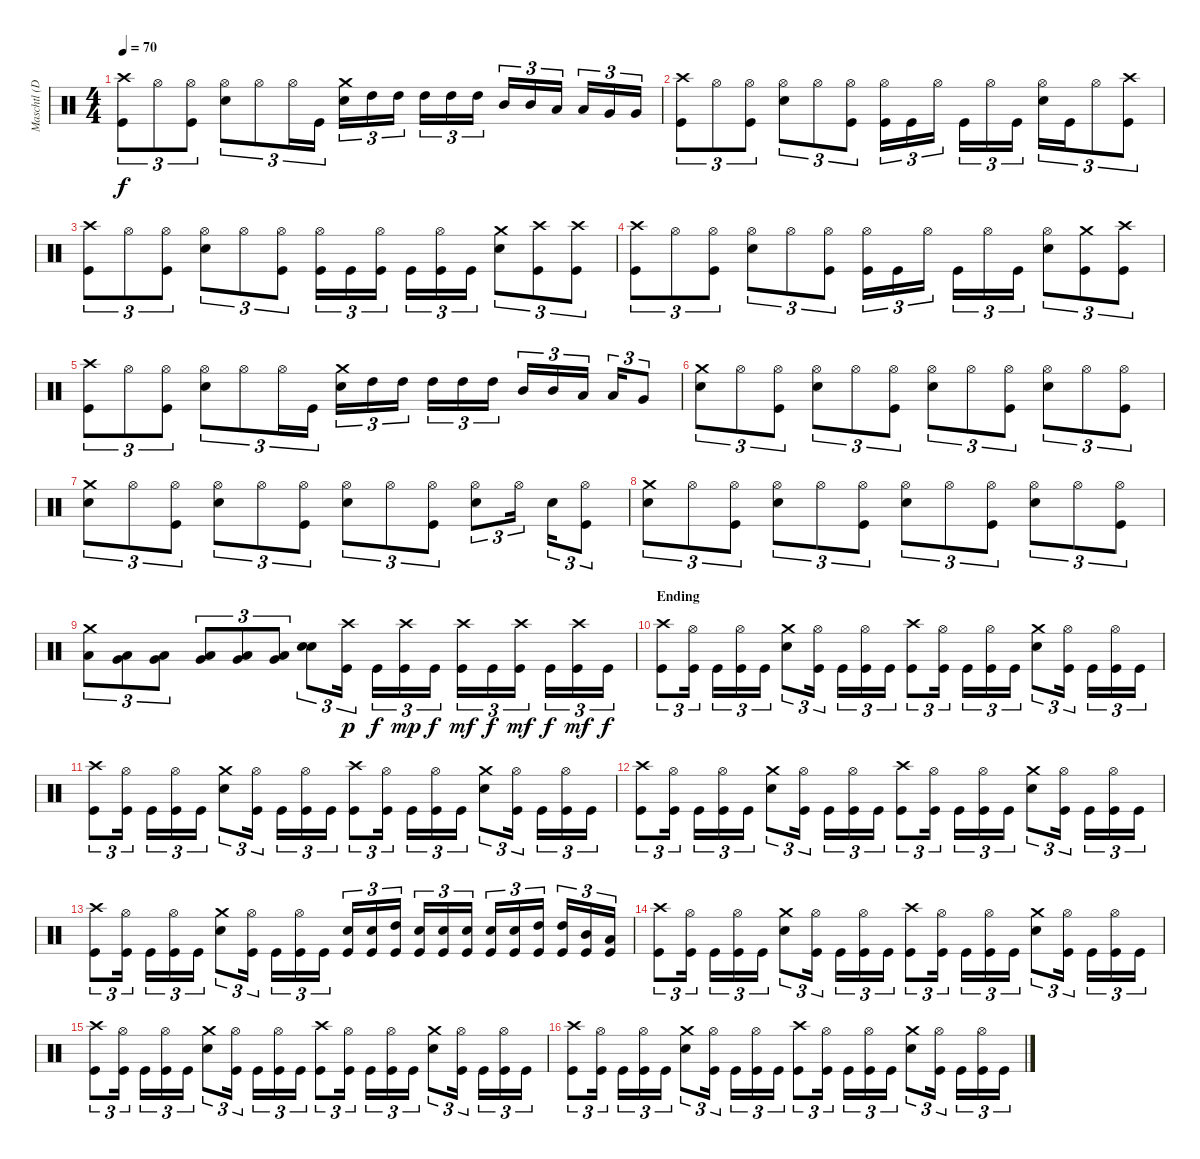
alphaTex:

\track ("Maschtl (Drums)" "Maschtl (D") {instrument percussion}
\staff {score}
\articulation defaults
\ts (4 4)
\tempo 70
\clef neutral
\ks c
("Crash high (hit)" "Kick (hit)").8{tu (3 2) dy f} "Hi-Hat (open)".8{tu (3 2)} ("Hi-Hat (open)" "Kick (hit)").8{tu (3 2)} ("Hi-Hat (open)" "Electric Snare (hit)").8{tu (3 2)} "Hi-Hat (open)".8{tu (3 2)} "Hi-Hat (open)".16{tu (3 2)} "Kick (hit)".16{tu (3 2)} ("Crash medium (hit)" "Electric Snare (hit)").16{tu (3 2)} "High Tom (hit)".16{tu (3 2)} "High Tom (hit)".16{tu (3 2)} "High Tom (hit)".16{tu (3 2)} "High Tom (hit)".16{tu (3 2)} "High Tom (hit)".16{tu (3 2)} "Mid Tom (hit)".16{tu (3 2)} "Mid Tom (hit)".16{tu (3 2)} "Low Tom (hit)".16{tu (3 2)} "Low Tom (hit)".16{tu (3 2)} "Very Low Tom (hit)".16{tu (3 2)} "Very Low Tom (hit)".16{tu (3 2)} |
("Crash high (hit)" "Kick (hit)").8{tu (3 2)} "Hi-Hat (open)".8{tu (3 2)} ("Hi-Hat (open)" "Kick (hit)").8{tu (3 2)} ("Hi-Hat (open)" "Electric Snare (hit)").8{tu (3 2)} "Hi-Hat (open)".8{tu (3 2)} ("Hi-Hat (open)" "Kick (hit)").8{tu (3 2)} ("Hi-Hat (open)" "Kick (hit)").16{tu (3 2)} "Kick (hit)".16{tu (3 2)} "Hi-Hat (open)".16{tu (3 2)} "Kick (hit)".16{tu (3 2)} "Hi-Hat (open)".16{tu (3 2)} "Kick (hit)".16{tu (3 2)} ("Hi-Hat (open)" "Electric Snare (hit)").16{tu (3 2)} "Kick (hit)".16{tu (3 2)} "Hi-Hat (open)".8{tu (3 2)} ("Crash high (hit)" "Kick (hit)").8{tu (3 2)} |
("Crash high (hit)" "Kick (hit)").8{tu (3 2)} "Hi-Hat (open)".8{tu (3 2)} ("Hi-Hat (open)" "Kick (hit)").8{tu (3 2)} ("Hi-Hat (open)" "Electric Snare (hit)").8{tu (3 2)} "Hi-Hat (open)".8{tu (3 2)} ("Hi-Hat (open)" "Kick (hit)").8{tu (3 2)} ("Hi-Hat (open)" "Kick (hit)").16{tu (3 2)} "Kick (hit)".16{tu (3 2)} ("Hi-Hat (open)" "Kick (hit)").16{tu (3 2)} "Kick (hit)".16{tu (3 2)} ("Hi-Hat (open)" "Kick (hit)").16{tu (3 2)} "Kick (hit)".16{tu (3 2)} ("Crash medium (hit)" "Electric Snare (hit)").8{tu (3 2)} ("Crash high (hit)" "Kick (hit)").8{tu (3 2)} ("Crash high (hit)" "Kick (hit)").8{tu (3 2)} |
("Crash high (hit)" "Kick (hit)").8{tu (3 2)} "Hi-Hat (open)".8{tu (3 2)} ("Hi-Hat (open)" "Kick (hit)").8{tu (3 2)} ("Hi-Hat (open)" "Electric Snare (hit)").8{tu (3 2)} "Hi-Hat (open)".8{tu (3 2)} ("Hi-Hat (open)" "Kick (hit)").8{tu (3 2)} ("Hi-Hat (open)" "Kick (hit)").16{tu (3 2)} "Kick (hit)".16{tu (3 2)} "Hi-Hat (open)".16{tu (3 2)} "Kick (hit)".16{tu (3 2)} "Hi-Hat (open)".16{tu (3 2)} "Kick (hit)".16{tu (3 2)} ("Hi-Hat (open)" "Electric Snare (hit)").8{tu (3 2)} ("Crash medium (hit)" "Kick (hit)").8{tu (3 2)} ("Crash high (hit)" "Kick (hit)").8{tu (3 2)} |
("Crash high (hit)" "Kick (hit)").8{tu (3 2)} "Hi-Hat (open)".8{tu (3 2)} ("Hi-Hat (open)" "Kick (hit)").8{tu (3 2)} ("Hi-Hat (open)" "Electric Snare (hit)").8{tu (3 2)} "Hi-Hat (open)".8{tu (3 2)} "Hi-Hat (open)".16{tu (3 2)} "Kick (hit)".16{tu (3 2)} ("Crash medium (hit)" "Electric Snare (hit)").16{tu (3 2)} "High Tom (hit)".16{tu (3 2)} "High Tom (hit)".16{tu (3 2)} "High Tom (hit)".16{tu (3 2)} "High Tom (hit)".16{tu (3 2)} "High Tom (hit)".16{tu (3 2)} "Mid Tom (hit)".16{tu (3 2)} "Mid Tom (hit)".16{tu (3 2)} "Low Tom (hit)".16{tu (3 2)} "Low Tom (hit)".16{tu (3 2)} "Very Low Tom (hit)".8{tu (3 2)} |
("Crash medium (hit)" "Electric Snare (hit)").8{tu (3 2)} "Hi-Hat (open)".8{tu (3 2)} ("Hi-Hat (open)" "Kick (hit)").8{tu (3 2)} ("Hi-Hat (open)" "Electric Snare (hit)").8{tu (3 2)} "Hi-Hat (open)".8{tu (3 2)} ("Hi-Hat (open)" "Kick (hit)").8{tu (3 2)} ("Hi-Hat (open)" "Electric Snare (hit)").8{tu (3 2)} "Hi-Hat (open)".8{tu (3 2)} ("Hi-Hat (open)" "Kick (hit)").8{tu (3 2)} ("Hi-Hat (open)" "Electric Snare (hit)").8{tu (3 2)} "Hi-Hat (open)".8{tu (3 2)} ("Hi-Hat (open)" "Kick (hit)").8{tu (3 2)} |
("Crash medium (hit)" "Electric Snare (hit)").8{tu (3 2)} "Hi-Hat (open)".8{tu (3 2)} ("Hi-Hat (open)" "Kick (hit)").8{tu (3 2)} ("Hi-Hat (open)" "Electric Snare (hit)").8{tu (3 2)} "Hi-Hat (open)".8{tu (3 2)} ("Hi-Hat (open)" "Kick (hit)").8{tu (3 2)} ("Hi-Hat (open)" "Electric Snare (hit)").8{tu (3 2)} "Hi-Hat (open)".8{tu (3 2)} ("Hi-Hat (open)" "Kick (hit)").8{tu (3 2)} ("Hi-Hat (open)" "Electric Snare (hit)").8{tu (3 2)} "Hi-Hat (open)".16{tu (3 2)} "Electric Snare (hit)".16{tu (3 2)} ("Hi-Hat (open)" "Kick (hit)").8{tu (3 2)} |
("Crash medium (hit)" "Electric Snare (hit)").8{tu (3 2)} "Hi-Hat (open)".8{tu (3 2)} ("Hi-Hat (open)" "Kick (hit)").8{tu (3 2)} ("Hi-Hat (open)" "Electric Snare (hit)").8{tu (3 2)} "Hi-Hat (open)".8{tu (3 2)} ("Hi-Hat (open)" "Kick (hit)").8{tu (3 2)} ("Hi-Hat (open)" "Electric Snare (hit)").8{tu (3 2)} "Hi-Hat (open)".8{tu (3 2)} ("Hi-Hat (open)" "Kick (hit)").8{tu (3 2)} ("Hi-Hat (open)" "Electric Snare (hit)").8{tu (3 2)} "Hi-Hat (open)".8{tu (3 2)} ("Hi-Hat (open)" "Kick (hit)").8{tu (3 2)} |
("Crash medium (hit)" "Low Tom (hit)").8{tu (3 2)} ("Very Low Tom (hit)" "Low Tom (hit)").8{tu (3 2) bu 60} ("Very Low Tom (hit)" "Low Tom (hit)").8{tu (3 2) bu 60} ("Very Low Tom (hit)" "Low Tom (hit)").8{tu (3 2) bu 60} ("Very Low Tom (hit)" "Low Tom (hit)").8{tu (3 2) bu 60} ("Very Low Tom (hit)" "Low Tom (hit)").8{tu (3 2) bu 60} ("Electric Snare (hit)" "Electric Snare (hit)").8{tu (3 2) bu 60} ("Crash high (hit)" "Kick (hit)").16{tu (3 2) dy p} "Kick (hit)".16{tu (3 2) dy f} ("Crash high (hit)" "Kick (hit)").16{tu (3 2) dy mp} "Kick (hit)".16{tu (3 2) dy f} ("Crash high (hit)" "Kick (hit)").16{tu (3 2) dy mf} "Kick (hit)".16{tu (3 2) dy f} ("Crash high (hit)" "Kick (hit)").16{tu (3 2) dy mf} "Kick (hit)".16{tu (3 2) dy f} ("Crash high (hit)" "Kick (hit)").16{tu (3 2) dy mf} "Kick (hit)".16{tu (3 2) dy f} |
\section ("" "Ending")
("Crash high (hit)" "Kick (hit)").8{tu (3 2)} ("Hi-Hat (open)" "Kick (hit)").16{tu (3 2)} "Kick (hit)".16{tu (3 2)} ("Hi-Hat (open)" "Kick (hit)").16{tu (3 2)} "Kick (hit)".16{tu (3 2)} ("Crash medium (hit)" "Electric Snare (hit)").8{tu (3 2)} ("Hi-Hat (open)" "Kick (hit)").16{tu (3 2)} "Kick (hit)".16{tu (3 2)} ("Hi-Hat (open)" "Kick (hit)").16{tu (3 2)} "Kick (hit)".16{tu (3 2)} ("Crash high (hit)" "Kick (hit)").8{tu (3 2)} ("Hi-Hat (open)" "Kick (hit)").16{tu (3 2)} "Kick (hit)".16{tu (3 2)} ("Hi-Hat (open)" "Kick (hit)").16{tu (3 2)} "Kick (hit)".16{tu (3 2)} ("Crash medium (hit)" "Electric Snare (hit)").8{tu (3 2)} ("Hi-Hat (open)" "Kick (hit)").16{tu (3 2)} "Kick (hit)".16{tu (3 2)} ("Hi-Hat (open)" "Kick (hit)").16{tu (3 2)} "Kick (hit)".16{tu (3 2)} |
("Crash high (hit)" "Kick (hit)").8{tu (3 2)} ("Hi-Hat (open)" "Kick (hit)").16{tu (3 2)} "Kick (hit)".16{tu (3 2)} ("Hi-Hat (open)" "Kick (hit)").16{tu (3 2)} "Kick (hit)".16{tu (3 2)} ("Crash medium (hit)" "Electric Snare (hit)").8{tu (3 2)} ("Hi-Hat (open)" "Kick (hit)").16{tu (3 2)} "Kick (hit)".16{tu (3 2)} ("Hi-Hat (open)" "Kick (hit)").16{tu (3 2)} "Kick (hit)".16{tu (3 2)} ("Crash high (hit)" "Kick (hit)").8{tu (3 2)} ("Hi-Hat (open)" "Kick (hit)").16{tu (3 2)} "Kick (hit)".16{tu (3 2)} ("Hi-Hat (open)" "Kick (hit)").16{tu (3 2)} "Kick (hit)".16{tu (3 2)} ("Crash medium (hit)" "Electric Snare (hit)").8{tu (3 2)} ("Hi-Hat (open)" "Kick (hit)").16{tu (3 2)} "Kick (hit)".16{tu (3 2)} ("Hi-Hat (open)" "Kick (hit)").16{tu (3 2)} "Kick (hit)".16{tu (3 2)} |
("Crash high (hit)" "Kick (hit)").8{tu (3 2)} ("Hi-Hat (open)" "Kick (hit)").16{tu (3 2)} "Kick (hit)".16{tu (3 2)} ("Hi-Hat (open)" "Kick (hit)").16{tu (3 2)} "Kick (hit)".16{tu (3 2)} ("Crash medium (hit)" "Electric Snare (hit)").8{tu (3 2)} ("Hi-Hat (open)" "Kick (hit)").16{tu (3 2)} "Kick (hit)".16{tu (3 2)} ("Hi-Hat (open)" "Kick (hit)").16{tu (3 2)} "Kick (hit)".16{tu (3 2)} ("Crash high (hit)" "Kick (hit)").8{tu (3 2)} ("Hi-Hat (open)" "Kick (hit)").16{tu (3 2)} "Kick (hit)".16{tu (3 2)} ("Hi-Hat (open)" "Kick (hit)").16{tu (3 2)} "Kick (hit)".16{tu (3 2)} ("Crash medium (hit)" "Electric Snare (hit)").8{tu (3 2)} ("Hi-Hat (open)" "Kick (hit)").16{tu (3 2)} "Kick (hit)".16{tu (3 2)} ("Hi-Hat (open)" "Kick (hit)").16{tu (3 2)} "Kick (hit)".16{tu (3 2)} |
("Crash high (hit)" "Kick (hit)").8{tu (3 2)} ("Hi-Hat (open)" "Kick (hit)").16{tu (3 2)} "Kick (hit)".16{tu (3 2)} ("Hi-Hat (open)" "Kick (hit)").16{tu (3 2)} "Kick (hit)".16{tu (3 2)} ("Crash medium (hit)" "Electric Snare (hit)").8{tu (3 2)} ("Hi-Hat (open)" "Kick (hit)").16{tu (3 2)} "Kick (hit)".16{tu (3 2)} ("Hi-Hat (open)" "Kick (hit)").16{tu (3 2)} "Kick (hit)".16{tu (3 2)} ("Electric Snare (hit)" "Kick (hit)").16{tu (3 2)} ("Electric Snare (hit)" "Kick (hit)").16{tu (3 2)} ("High Tom (hit)" "Kick (hit)").16{tu (3 2)} ("Electric Snare (hit)" "Kick (hit)").16{tu (3 2)} ("Electric Snare (hit)" "Kick (hit)").16{tu (3 2)} ("Electric Snare (hit)" "Kick (hit)").16{tu (3 2)} ("Electric Snare (hit)" "Kick (hit)").16{tu (3 2)} ("Electric Snare (hit)" "Kick (hit)").16{tu (3 2)} ("High Tom (hit)" "Kick (hit)").16{tu (3 2)} ("High Tom (hit)" "Kick (hit)").16{tu (3 2)} ("Mid Tom (hit)" "Kick (hit)").16{tu (3 2)} ("Low Tom (hit)" "Kick (hit)").16{tu (3 2)} |
("Crash high (hit)" "Kick (hit)").8{tu (3 2)} ("Hi-Hat (open)" "Kick (hit)").16{tu (3 2)} "Kick (hit)".16{tu (3 2)} ("Hi-Hat (open)" "Kick (hit)").16{tu (3 2)} "Kick (hit)".16{tu (3 2)} ("Crash medium (hit)" "Electric Snare (hit)").8{tu (3 2)} ("Hi-Hat (open)" "Kick (hit)").16{tu (3 2)} "Kick (hit)".16{tu (3 2)} ("Hi-Hat (open)" "Kick (hit)").16{tu (3 2)} "Kick (hit)".16{tu (3 2)} ("Crash high (hit)" "Kick (hit)").8{tu (3 2)} ("Hi-Hat (open)" "Kick (hit)").16{tu (3 2)} "Kick (hit)".16{tu (3 2)} ("Hi-Hat (open)" "Kick (hit)").16{tu (3 2)} "Kick (hit)".16{tu (3 2)} ("Crash medium (hit)" "Electric Snare (hit)").8{tu (3 2)} ("Hi-Hat (open)" "Kick (hit)").16{tu (3 2)} "Kick (hit)".16{tu (3 2)} ("Hi-Hat (open)" "Kick (hit)").16{tu (3 2)} "Kick (hit)".16{tu (3 2)} |
("Crash high (hit)" "Kick (hit)").8{tu (3 2)} ("Hi-Hat (open)" "Kick (hit)").16{tu (3 2)} "Kick (hit)".16{tu (3 2)} ("Hi-Hat (open)" "Kick (hit)").16{tu (3 2)} "Kick (hit)".16{tu (3 2)} ("Crash medium (hit)" "Electric Snare (hit)").8{tu (3 2)} ("Hi-Hat (open)" "Kick (hit)").16{tu (3 2)} "Kick (hit)".16{tu (3 2)} ("Hi-Hat (open)" "Kick (hit)").16{tu (3 2)} "Kick (hit)".16{tu (3 2)} ("Crash high (hit)" "Kick (hit)").8{tu (3 2)} ("Hi-Hat (open)" "Kick (hit)").16{tu (3 2)} "Kick (hit)".16{tu (3 2)} ("Hi-Hat (open)" "Kick (hit)").16{tu (3 2)} "Kick (hit)".16{tu (3 2)} ("Crash medium (hit)" "Electric Snare (hit)").8{tu (3 2)} ("Hi-Hat (open)" "Kick (hit)").16{tu (3 2)} "Kick (hit)".16{tu (3 2)} ("Hi-Hat (open)" "Kick (hit)").16{tu (3 2)} "Kick (hit)".16{tu (3 2)} |
("Crash high (hit)" "Kick (hit)").8{tu (3 2)} ("Hi-Hat (open)" "Kick (hit)").16{tu (3 2)} "Kick (hit)".16{tu (3 2)} ("Hi-Hat (open)" "Kick (hit)").16{tu (3 2)} "Kick (hit)".16{tu (3 2)} ("Crash medium (hit)" "Electric Snare (hit)").8{tu (3 2)} ("Hi-Hat (open)" "Kick (hit)").16{tu (3 2)} "Kick (hit)".16{tu (3 2)} ("Hi-Hat (open)" "Kick (hit)").16{tu (3 2)} "Kick (hit)".16{tu (3 2)} ("Crash high (hit)" "Kick (hit)").8{tu (3 2)} ("Hi-Hat (open)" "Kick (hit)").16{tu (3 2)} "Kick (hit)".16{tu (3 2)} ("Hi-Hat (open)" "Kick (hit)").16{tu (3 2)} "Kick (hit)".16{tu (3 2)} ("Crash medium (hit)" "Electric Snare (hit)").8{tu (3 2)} ("Hi-Hat (open)" "Kick (hit)").16{tu (3 2)} "Kick (hit)".16{tu (3 2)} ("Hi-Hat (open)" "Kick (hit)").16{tu (3 2)} "Kick (hit)".16{tu (3 2)}
